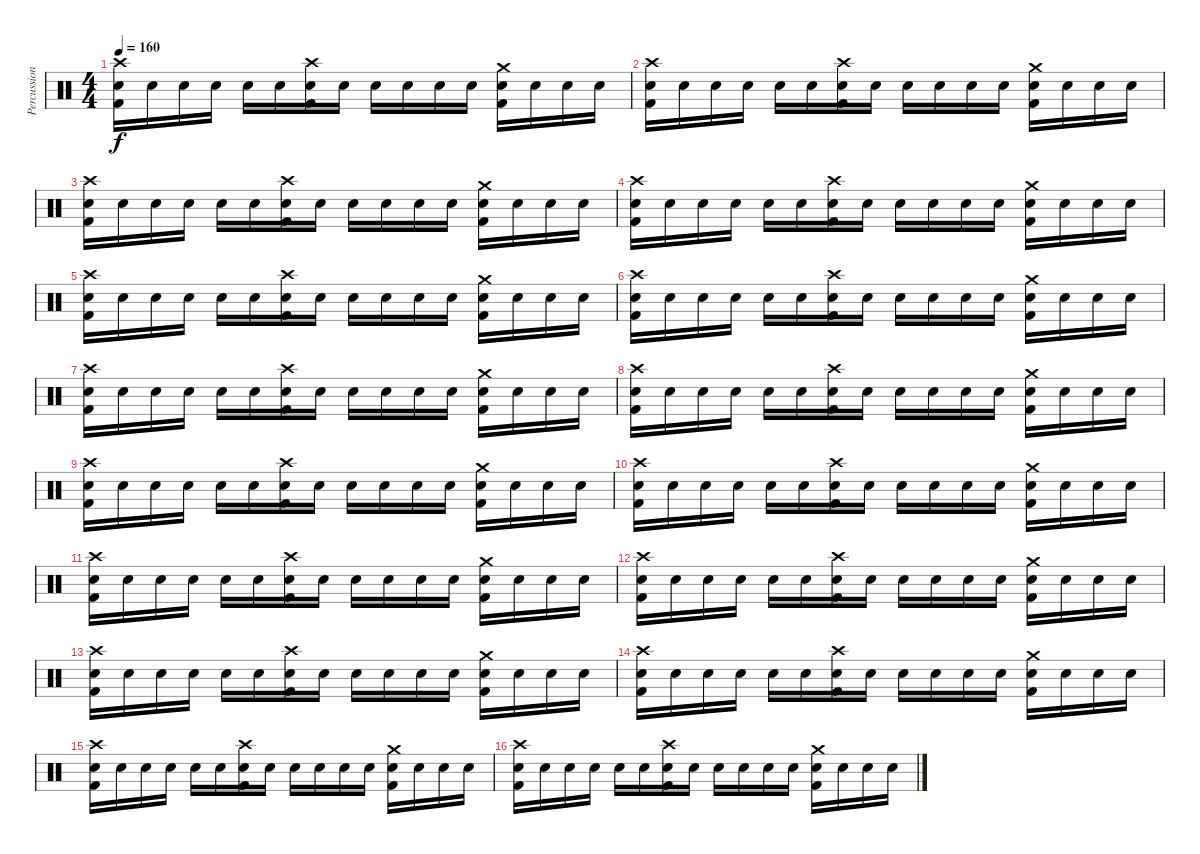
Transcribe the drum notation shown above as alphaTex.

\track ("Percussion" "Percussion") {instrument percussion}
\staff {score}
\articulation defaults
\ts (4 4)
\tempo 160
\clef neutral
\ks c
("Snare (hit) 2" "Kick (hit) 2" "Crash high (hit)").16{dy f} "Snare (hit) 2".16 "Snare (hit) 2".16 "Snare (hit) 2".16 "Snare (hit) 2".16 "Snare (hit) 2".16 ("Snare (hit) 2" "Kick (hit) 2" "Crash high (hit)").16 "Snare (hit) 2".16 "Snare (hit) 2".16 "Snare (hit) 2".16 "Snare (hit) 2".16 "Snare (hit) 2".16 ("Snare (hit) 2" "Kick (hit) 2" "Crash medium (hit)").16 "Snare (hit) 2".16 "Snare (hit) 2".16 "Snare (hit) 2".16 |
("Snare (hit) 2" "Kick (hit) 2" "Crash high (hit)").16 "Snare (hit) 2".16 "Snare (hit) 2".16 "Snare (hit) 2".16 "Snare (hit) 2".16 "Snare (hit) 2".16 ("Snare (hit) 2" "Kick (hit) 2" "Crash high (hit)").16 "Snare (hit) 2".16 "Snare (hit) 2".16 "Snare (hit) 2".16 "Snare (hit) 2".16 "Snare (hit) 2".16 ("Snare (hit) 2" "Kick (hit) 2" "Crash medium (hit)").16 "Snare (hit) 2".16 "Snare (hit) 2".16 "Snare (hit) 2".16 |
("Snare (hit) 2" "Kick (hit) 2" "Crash high (hit)").16 "Snare (hit) 2".16 "Snare (hit) 2".16 "Snare (hit) 2".16 "Snare (hit) 2".16 "Snare (hit) 2".16 ("Snare (hit) 2" "Kick (hit) 2" "Crash high (hit)").16 "Snare (hit) 2".16 "Snare (hit) 2".16 "Snare (hit) 2".16 "Snare (hit) 2".16 "Snare (hit) 2".16 ("Snare (hit) 2" "Kick (hit) 2" "Crash medium (hit)").16 "Snare (hit) 2".16 "Snare (hit) 2".16 "Snare (hit) 2".16 |
("Snare (hit) 2" "Kick (hit) 2" "Crash high (hit)").16 "Snare (hit) 2".16 "Snare (hit) 2".16 "Snare (hit) 2".16 "Snare (hit) 2".16 "Snare (hit) 2".16 ("Snare (hit) 2" "Kick (hit) 2" "Crash high (hit)").16 "Snare (hit) 2".16 "Snare (hit) 2".16 "Snare (hit) 2".16 "Snare (hit) 2".16 "Snare (hit) 2".16 ("Snare (hit) 2" "Kick (hit) 2" "Crash medium (hit)").16 "Snare (hit) 2".16 "Snare (hit) 2".16 "Snare (hit) 2".16 |
("Snare (hit) 2" "Kick (hit) 2" "Crash high (hit)").16 "Snare (hit) 2".16 "Snare (hit) 2".16 "Snare (hit) 2".16 "Snare (hit) 2".16 "Snare (hit) 2".16 ("Snare (hit) 2" "Kick (hit) 2" "Crash high (hit)").16 "Snare (hit) 2".16 "Snare (hit) 2".16 "Snare (hit) 2".16 "Snare (hit) 2".16 "Snare (hit) 2".16 ("Snare (hit) 2" "Kick (hit) 2" "Crash medium (hit)").16 "Snare (hit) 2".16 "Snare (hit) 2".16 "Snare (hit) 2".16 |
("Snare (hit) 2" "Kick (hit) 2" "Crash high (hit)").16 "Snare (hit) 2".16 "Snare (hit) 2".16 "Snare (hit) 2".16 "Snare (hit) 2".16 "Snare (hit) 2".16 ("Snare (hit) 2" "Kick (hit) 2" "Crash high (hit)").16 "Snare (hit) 2".16 "Snare (hit) 2".16 "Snare (hit) 2".16 "Snare (hit) 2".16 "Snare (hit) 2".16 ("Snare (hit) 2" "Kick (hit) 2" "Crash medium (hit)").16 "Snare (hit) 2".16 "Snare (hit) 2".16 "Snare (hit) 2".16 |
("Snare (hit) 2" "Kick (hit) 2" "Crash high (hit)").16 "Snare (hit) 2".16 "Snare (hit) 2".16 "Snare (hit) 2".16 "Snare (hit) 2".16 "Snare (hit) 2".16 ("Snare (hit) 2" "Kick (hit) 2" "Crash high (hit)").16 "Snare (hit) 2".16 "Snare (hit) 2".16 "Snare (hit) 2".16 "Snare (hit) 2".16 "Snare (hit) 2".16 ("Snare (hit) 2" "Kick (hit) 2" "Crash medium (hit)").16 "Snare (hit) 2".16 "Snare (hit) 2".16 "Snare (hit) 2".16 |
("Snare (hit) 2" "Kick (hit) 2" "Crash high (hit)").16 "Snare (hit) 2".16 "Snare (hit) 2".16 "Snare (hit) 2".16 "Snare (hit) 2".16 "Snare (hit) 2".16 ("Snare (hit) 2" "Kick (hit) 2" "Crash high (hit)").16 "Snare (hit) 2".16 "Snare (hit) 2".16 "Snare (hit) 2".16 "Snare (hit) 2".16 "Snare (hit) 2".16 ("Snare (hit) 2" "Kick (hit) 2" "Crash medium (hit)").16 "Snare (hit) 2".16 "Snare (hit) 2".16 "Snare (hit) 2".16 |
("Snare (hit) 2" "Kick (hit) 2" "Crash high (hit)").16 "Snare (hit) 2".16 "Snare (hit) 2".16 "Snare (hit) 2".16 "Snare (hit) 2".16 "Snare (hit) 2".16 ("Snare (hit) 2" "Kick (hit) 2" "Crash high (hit)").16 "Snare (hit) 2".16 "Snare (hit) 2".16 "Snare (hit) 2".16 "Snare (hit) 2".16 "Snare (hit) 2".16 ("Snare (hit) 2" "Kick (hit) 2" "Crash medium (hit)").16 "Snare (hit) 2".16 "Snare (hit) 2".16 "Snare (hit) 2".16 |
("Snare (hit) 2" "Kick (hit) 2" "Crash high (hit)").16 "Snare (hit) 2".16 "Snare (hit) 2".16 "Snare (hit) 2".16 "Snare (hit) 2".16 "Snare (hit) 2".16 ("Snare (hit) 2" "Kick (hit) 2" "Crash high (hit)").16 "Snare (hit) 2".16 "Snare (hit) 2".16 "Snare (hit) 2".16 "Snare (hit) 2".16 "Snare (hit) 2".16 ("Snare (hit) 2" "Kick (hit) 2" "Crash medium (hit)").16 "Snare (hit) 2".16 "Snare (hit) 2".16 "Snare (hit) 2".16 |
("Snare (hit) 2" "Kick (hit) 2" "Crash high (hit)").16 "Snare (hit) 2".16 "Snare (hit) 2".16 "Snare (hit) 2".16 "Snare (hit) 2".16 "Snare (hit) 2".16 ("Snare (hit) 2" "Kick (hit) 2" "Crash high (hit)").16 "Snare (hit) 2".16 "Snare (hit) 2".16 "Snare (hit) 2".16 "Snare (hit) 2".16 "Snare (hit) 2".16 ("Snare (hit) 2" "Kick (hit) 2" "Crash medium (hit)").16 "Snare (hit) 2".16 "Snare (hit) 2".16 "Snare (hit) 2".16 |
("Snare (hit) 2" "Kick (hit) 2" "Crash high (hit)").16 "Snare (hit) 2".16 "Snare (hit) 2".16 "Snare (hit) 2".16 "Snare (hit) 2".16 "Snare (hit) 2".16 ("Snare (hit) 2" "Kick (hit) 2" "Crash high (hit)").16 "Snare (hit) 2".16 "Snare (hit) 2".16 "Snare (hit) 2".16 "Snare (hit) 2".16 "Snare (hit) 2".16 ("Snare (hit) 2" "Kick (hit) 2" "Crash medium (hit)").16 "Snare (hit) 2".16 "Snare (hit) 2".16 "Snare (hit) 2".16 |
("Snare (hit) 2" "Kick (hit) 2" "Crash high (hit)").16 "Snare (hit) 2".16 "Snare (hit) 2".16 "Snare (hit) 2".16 "Snare (hit) 2".16 "Snare (hit) 2".16 ("Snare (hit) 2" "Kick (hit) 2" "Crash high (hit)").16 "Snare (hit) 2".16 "Snare (hit) 2".16 "Snare (hit) 2".16 "Snare (hit) 2".16 "Snare (hit) 2".16 ("Snare (hit) 2" "Kick (hit) 2" "Crash medium (hit)").16 "Snare (hit) 2".16 "Snare (hit) 2".16 "Snare (hit) 2".16 |
("Snare (hit) 2" "Kick (hit) 2" "Crash high (hit)").16 "Snare (hit) 2".16 "Snare (hit) 2".16 "Snare (hit) 2".16 "Snare (hit) 2".16 "Snare (hit) 2".16 ("Snare (hit) 2" "Kick (hit) 2" "Crash high (hit)").16 "Snare (hit) 2".16 "Snare (hit) 2".16 "Snare (hit) 2".16 "Snare (hit) 2".16 "Snare (hit) 2".16 ("Snare (hit) 2" "Kick (hit) 2" "Crash medium (hit)").16 "Snare (hit) 2".16 "Snare (hit) 2".16 "Snare (hit) 2".16 |
("Snare (hit) 2" "Kick (hit) 2" "Crash high (hit)").16 "Snare (hit) 2".16 "Snare (hit) 2".16 "Snare (hit) 2".16 "Snare (hit) 2".16 "Snare (hit) 2".16 ("Snare (hit) 2" "Kick (hit) 2" "Crash high (hit)").16 "Snare (hit) 2".16 "Snare (hit) 2".16 "Snare (hit) 2".16 "Snare (hit) 2".16 "Snare (hit) 2".16 ("Snare (hit) 2" "Kick (hit) 2" "Crash medium (hit)").16 "Snare (hit) 2".16 "Snare (hit) 2".16 "Snare (hit) 2".16 |
("Snare (hit) 2" "Kick (hit) 2" "Crash high (hit)").16 "Snare (hit) 2".16 "Snare (hit) 2".16 "Snare (hit) 2".16 "Snare (hit) 2".16 "Snare (hit) 2".16 ("Snare (hit) 2" "Kick (hit) 2" "Crash high (hit)").16 "Snare (hit) 2".16 "Snare (hit) 2".16 "Snare (hit) 2".16 "Snare (hit) 2".16 "Snare (hit) 2".16 ("Snare (hit) 2" "Kick (hit) 2" "Crash medium (hit)").16 "Snare (hit) 2".16 "Snare (hit) 2".16 "Snare (hit) 2".16
